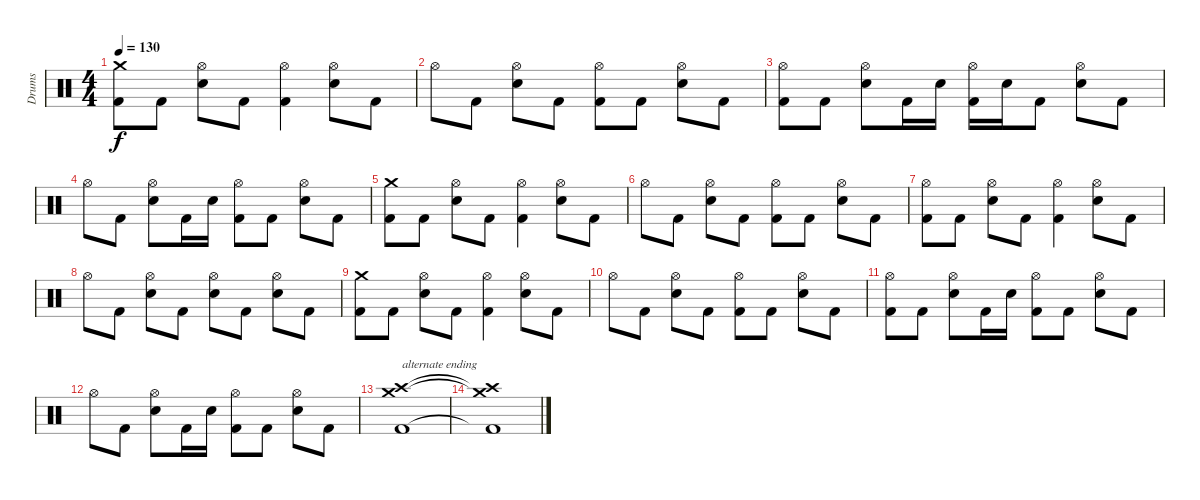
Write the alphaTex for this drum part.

\track ("Drums" "Drums") {instrument percussion}
\staff {score}
\articulation defaults
\ts (4 4)
\tempo 130
\clef neutral
\ks c
("Crash medium (hit)" "Kick (hit) 2").8{dy f} "Kick (hit) 2".8 ("Hi-Hat (open)" "Electric Snare (hit)").8 "Kick (hit) 2".8 ("Hi-Hat (open)" "Kick (hit) 2").4 ("Hi-Hat (open)" "Electric Snare (hit)").8 "Kick (hit) 2".8 |
"Hi-Hat (open)".8 "Kick (hit) 2".8 ("Hi-Hat (open)" "Electric Snare (hit)").8 "Kick (hit) 2".8 ("Hi-Hat (open)" "Kick (hit) 2").8 "Kick (hit) 2".8 ("Hi-Hat (open)" "Electric Snare (hit)").8 "Kick (hit) 2".8 |
("Hi-Hat (open)" "Kick (hit) 2").8 "Kick (hit) 2".8 ("Hi-Hat (open)" "Electric Snare (hit)").8 "Kick (hit) 2".16 "Electric Snare (hit)".16 ("Hi-Hat (open)" "Kick (hit) 2").16 "Electric Snare (hit)".16 "Kick (hit) 2".8 ("Hi-Hat (open)" "Electric Snare (hit)").8 "Kick (hit) 2".8 |
"Hi-Hat (open)".8 "Kick (hit) 2".8 ("Hi-Hat (open)" "Electric Snare (hit)").8 "Kick (hit) 2".16 "Electric Snare (hit)".16 ("Hi-Hat (open)" "Kick (hit) 2").8 "Kick (hit) 2".8 ("Hi-Hat (open)" "Electric Snare (hit)").8 "Kick (hit) 2".8 |
("Crash medium (hit)" "Kick (hit) 2").8 "Kick (hit) 2".8 ("Hi-Hat (open)" "Electric Snare (hit)").8 "Kick (hit) 2".8 ("Hi-Hat (open)" "Kick (hit) 2").4 ("Hi-Hat (open)" "Electric Snare (hit)").8 "Kick (hit) 2".8 |
"Hi-Hat (open)".8 "Kick (hit) 2".8 ("Hi-Hat (open)" "Electric Snare (hit)").8 "Kick (hit) 2".8 ("Hi-Hat (open)" "Kick (hit) 2").8 "Kick (hit) 2".8 ("Hi-Hat (open)" "Electric Snare (hit)").8 "Kick (hit) 2".8 |
("Hi-Hat (open)" "Kick (hit) 2").8 "Kick (hit) 2".8 ("Hi-Hat (open)" "Electric Snare (hit)").8 "Kick (hit) 2".8 ("Hi-Hat (open)" "Kick (hit) 2").4 ("Hi-Hat (open)" "Electric Snare (hit)").8 "Kick (hit) 2".8 |
"Hi-Hat (open)".8 "Kick (hit) 2".8 ("Hi-Hat (open)" "Electric Snare (hit)").8 "Kick (hit) 2".8 ("Hi-Hat (open)" "Electric Snare (hit)").8 "Kick (hit) 2".8 ("Hi-Hat (open)" "Electric Snare (hit)").8 "Kick (hit) 2".8 |
("Crash medium (hit)" "Kick (hit) 2").8 "Kick (hit) 2".8 ("Hi-Hat (open)" "Electric Snare (hit)").8 "Kick (hit) 2".8 ("Hi-Hat (open)" "Kick (hit) 2").4 ("Hi-Hat (open)" "Electric Snare (hit)").8 "Kick (hit) 2".8 |
"Hi-Hat (open)".8 "Kick (hit) 2".8 ("Hi-Hat (open)" "Electric Snare (hit)").8 "Kick (hit) 2".8 ("Hi-Hat (open)" "Kick (hit) 2").8 "Kick (hit) 2".8 ("Hi-Hat (open)" "Electric Snare (hit)").8 "Kick (hit) 2".8 |
("Hi-Hat (open)" "Kick (hit) 2").8 "Kick (hit) 2".8 ("Hi-Hat (open)" "Electric Snare (hit)").8 "Kick (hit) 2".16 "Electric Snare (hit)".16 ("Hi-Hat (open)" "Kick (hit) 2").8 "Kick (hit) 2".8 ("Hi-Hat (open)" "Electric Snare (hit)").8 "Kick (hit) 2".8 |
"Hi-Hat (open)".8 "Kick (hit) 2".8 ("Hi-Hat (open)" "Electric Snare (hit)").8 "Kick (hit) 2".16 "Electric Snare (hit)".16 ("Hi-Hat (open)" "Kick (hit) 2").8 "Kick (hit) 2".8 ("Hi-Hat (open)" "Electric Snare (hit)").8 "Kick (hit) 2".8 |
("Crash high (hit)" "Crash medium (hit)" "Kick (hit) 2").1{txt "alternate ending"} |
("Crash high (hit)"{t} "Crash medium (hit)"{t} "Kick (hit) 2"{t}).1
